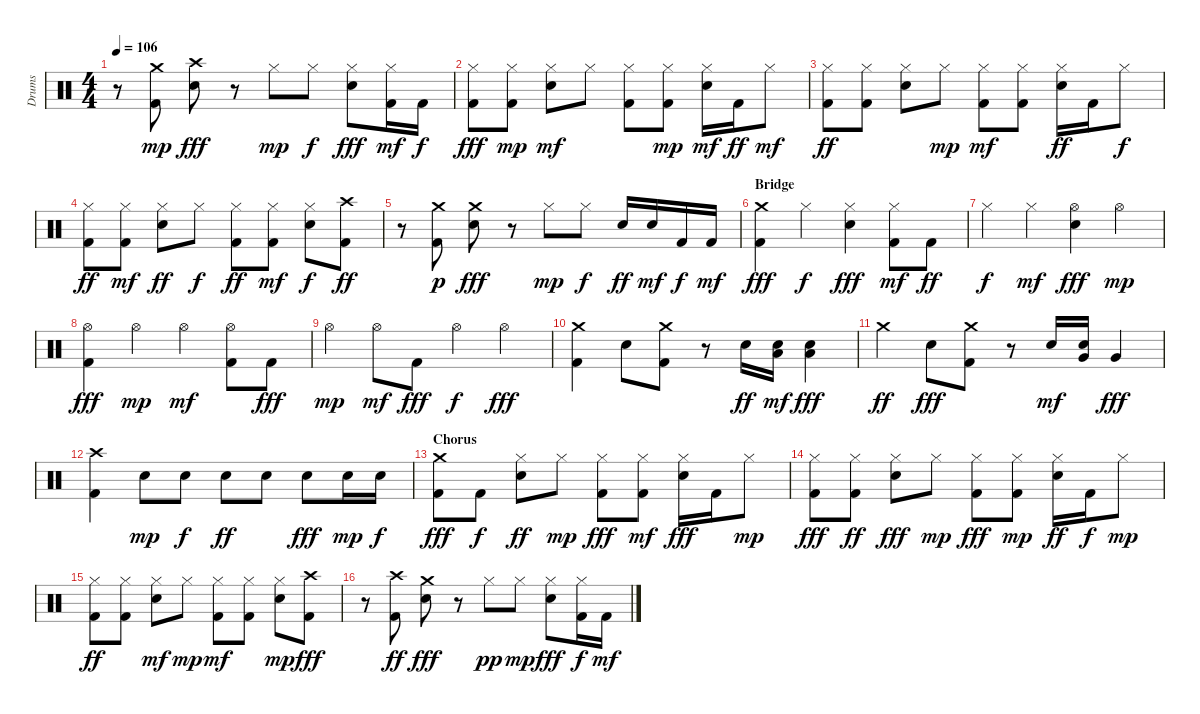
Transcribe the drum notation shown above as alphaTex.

\track ("Drums" "Drums") {instrument percussion}
\staff {score}
\articulation defaults
\ts (4 4)
\tempo 106
\clef neutral
\ks c
r.8{dy fff} ("Kick (hit) 2" "Crash medium (hit)").8{dy mp} ("Crash high (hit)" "Snare (hit) 2").8{dy fff} r.8 "Hi-Hat (closed)".8{dy mp} "Hi-Hat (closed)".8{dy f} ("Hi-Hat (closed)" "Snare (hit) 2").8{dy fff} ("Hi-Hat (closed)" "Kick (hit) 2").16{dy mf} "Kick (hit) 2".16{dy f} |
("Hi-Hat (closed)" "Kick (hit) 2").8{dy fff} ("Kick (hit) 2" "Hi-Hat (closed)").8{dy mp} ("Snare (hit) 2" "Hi-Hat (closed)").8{dy mf} "Hi-Hat (closed)".8 ("Kick (hit) 2" "Hi-Hat (closed)").8 ("Hi-Hat (closed)" "Kick (hit) 2").8{dy mp} ("Snare (hit) 2" "Hi-Hat (closed)").16{dy mf} "Kick (hit) 2".16{dy ff} "Hi-Hat (closed)".8{dy mf} |
("Hi-Hat (closed)" "Kick (hit) 2").8{dy ff} ("Hi-Hat (closed)" "Kick (hit) 2").8 ("Snare (hit) 2" "Hi-Hat (closed)").8 "Hi-Hat (closed)".8{dy mp} ("Kick (hit) 2" "Hi-Hat (closed)").8{dy mf} ("Kick (hit) 2" "Hi-Hat (closed)").8 ("Snare (hit) 2" "Hi-Hat (closed)").16{dy ff} "Kick (hit) 2".16 "Hi-Hat (closed)".8{dy f} |
("Kick (hit) 2" "Hi-Hat (closed)").8{dy ff} ("Kick (hit) 2" "Hi-Hat (closed)").8{dy mf} ("Snare (hit) 2" "Hi-Hat (closed)").8{dy ff} "Hi-Hat (closed)".8{dy f} ("Kick (hit) 2" "Hi-Hat (closed)").8{dy ff} ("Kick (hit) 2" "Hi-Hat (closed)").8{dy mf} ("Hi-Hat (closed)" "Snare (hit) 2").8{dy f} ("Kick (hit) 2" "Crash high (hit)").8{dy ff} |
r.8 ("Kick (hit) 2" "Crash medium (hit)").8{dy p} ("Crash medium (hit)" "Snare (hit) 2").8{dy fff} r.8 "Hi-Hat (closed)".8{dy mp} "Hi-Hat (closed)".8{dy f} "Snare (hit) 2".16{dy ff} "Snare (hit) 2".16{dy mf} "Kick (hit) 2".16{dy f} "Kick (hit) 2".16{dy mf} |
\section ("" "Bridge")
("Crash medium (hit)" "Kick (hit) 2").4{dy fff} "Hi-Hat (closed)".4{dy f} ("Hi-Hat (closed)" "Snare (hit) 2").4{dy fff} ("Hi-Hat (closed)" "Kick (hit) 2").8{dy mf} "Kick (hit) 2".8{dy ff} |
"Hi-Hat (closed)".4{dy f} "Hi-Hat (closed)".4{dy mf} ("Hi-Hat (open)" "Snare (hit) 2").4{dy fff} "Hi-Hat (open)".4{dy mp} |
("Hi-Hat (open)" "Kick (hit) 2").4{dy fff} "Hi-Hat (open)".4{dy mp} "Hi-Hat (open)".4{dy mf} ("Hi-Hat (open)" "Kick (hit) 2").8 "Kick (hit) 2".8{dy fff} |
"Hi-Hat (open)".4{dy mp} "Hi-Hat (open)".8{dy mf} "Kick (hit) 2".8{dy fff} "Hi-Hat (open)".4{dy f} "Hi-Hat (open)".4{dy fff} |
("Crash medium (hit)" "Kick (hit) 2").4 "Snare (hit) 2".8 ("Crash medium (hit)" "Kick (hit) 2").8 r.8 "Snare (hit) 2".16{dy ff} ("Snare (hit) 2" "Low Floor Tom (hit)").16{dy mf} ("Snare (hit) 2" "Low Floor Tom (hit)").4{dy fff} |
"Crash medium (hit)".4{dy ff} "Snare (hit) 2".8{dy fff} ("Crash medium (hit)" "Kick (hit) 2").8 r.8 "Snare (hit) 2".16{dy mf} ("Snare (hit) 2" "Very Low Tom (hit)").16 "Very Low Tom (hit)".4{dy fff} |
("Crash high (hit)" "Kick (hit) 2").4 "Snare (hit) 2".8{dy mp} "Snare (hit) 2".8{dy f} "Snare (hit) 2".8{dy ff} "Snare (hit) 2".8 "Snare (hit) 2".8{dy fff} "Snare (hit) 2".16{dy mp} "Snare (hit) 2".16{dy f} |
\section ("" "Chorus")
("Crash medium (hit)" "Kick (hit) 2").8{dy fff} "Kick (hit) 2".8{dy f} ("Hi-Hat (closed)" "Snare (hit) 2").8{dy ff} "Hi-Hat (closed)".8{dy mp} ("Hi-Hat (closed)" "Kick (hit) 2").8{dy fff} ("Hi-Hat (closed)" "Kick (hit) 2").8{dy mf} ("Hi-Hat (closed)" "Snare (hit) 2").16{dy fff} "Kick (hit) 2".16 "Hi-Hat (closed)".8{dy mp} |
("Hi-Hat (closed)" "Kick (hit) 2").8{dy fff} ("Hi-Hat (closed)" "Kick (hit) 2").8{dy ff} ("Hi-Hat (closed)" "Snare (hit) 2").8{dy fff} "Hi-Hat (closed)".8{dy mp} ("Hi-Hat (closed)" "Kick (hit) 2").8{dy fff} ("Kick (hit) 2" "Hi-Hat (closed)").8{dy mp} ("Hi-Hat (closed)" "Snare (hit) 2").16{dy ff} "Kick (hit) 2".16{dy f} "Hi-Hat (closed)".8{dy mp} |
("Hi-Hat (closed)" "Kick (hit) 2").8{dy ff} ("Hi-Hat (closed)" "Kick (hit) 2").8 ("Snare (hit) 2" "Hi-Hat (closed)").8{dy mf} "Hi-Hat (closed)".8{dy mp} ("Kick (hit) 2" "Hi-Hat (closed)").8{dy mf} ("Kick (hit) 2" "Hi-Hat (closed)").8 ("Snare (hit) 2" "Hi-Hat (closed)").8{dy mp} ("Crash high (hit)" "Kick (hit) 2").8{dy fff} |
r.8 ("Crash high (hit)" "Kick (hit) 2").8{dy ff} ("Crash medium (hit)" "Snare (hit) 2").8{dy fff} r.8 "Hi-Hat (closed)".8{dy pp} "Hi-Hat (closed)".8{dy mp} ("Hi-Hat (closed)" "Snare (hit) 2").8{dy fff} ("Kick (hit) 2" "Hi-Hat (closed)").16{dy f} "Kick (hit) 2".16{dy mf}
